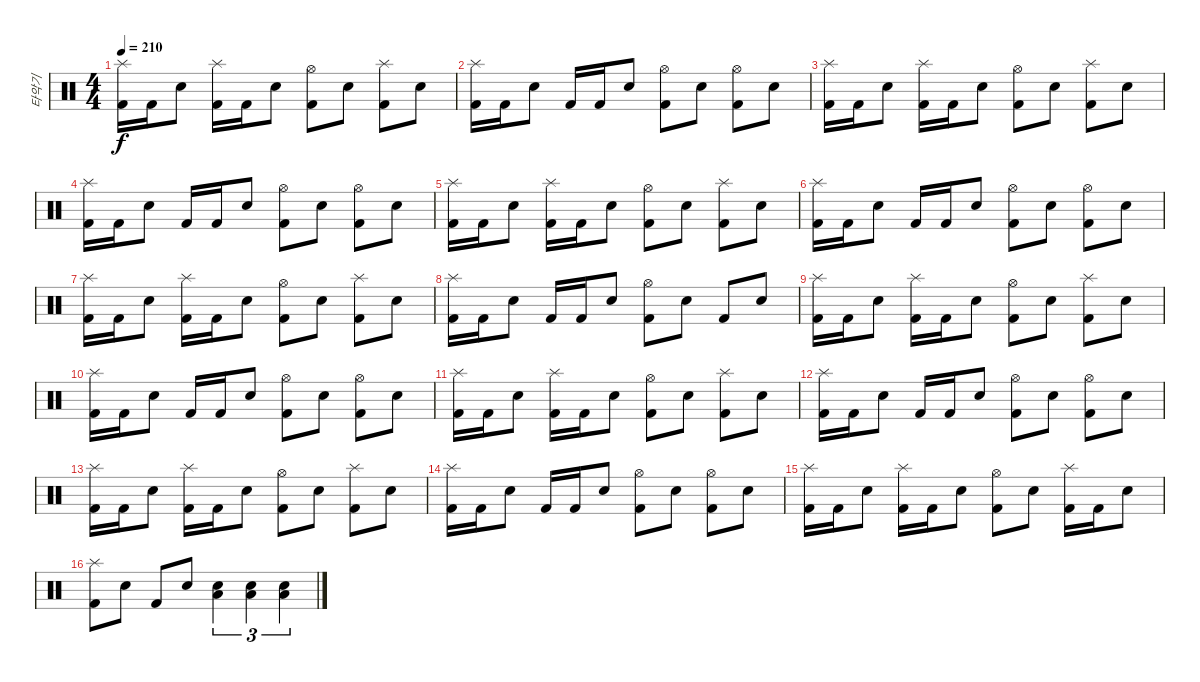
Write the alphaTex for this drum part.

\track ("타악기" "타악기") {instrument percussion}
\staff {score}
\articulation defaults
\ts (4 4)
\tempo 210
\clef neutral
\ks c
("Splash (hit)" "Kick (hit) 2").16{dy f} "Kick (hit) 2".16 "Snare (hit) 2".8 ("Splash (hit)" "Kick (hit) 2").16 "Kick (hit) 2".16 "Snare (hit) 2".8 ("Hi-Hat (open)" "Kick (hit) 2").8 "Snare (hit) 2".8 ("Splash (hit)" "Kick (hit) 2").8 "Snare (hit) 2".8 |
("Splash (hit)" "Kick (hit) 2").16 "Kick (hit) 2".16 "Snare (hit) 2".8 "Kick (hit) 2".16 "Kick (hit) 2".16 "Snare (hit) 2".8 ("Hi-Hat (open)" "Kick (hit) 2").8 "Snare (hit) 2".8 ("Hi-Hat (open)" "Kick (hit) 2").8 "Snare (hit) 2".8 |
("Splash (hit)" "Kick (hit) 2").16 "Kick (hit) 2".16 "Snare (hit) 2".8 ("Splash (hit)" "Kick (hit) 2").16 "Kick (hit) 2".16 "Snare (hit) 2".8 ("Hi-Hat (open)" "Kick (hit) 2").8 "Snare (hit) 2".8 ("Splash (hit)" "Kick (hit) 2").8 "Snare (hit) 2".8 |
("Splash (hit)" "Kick (hit) 2").16 "Kick (hit) 2".16 "Snare (hit) 2".8 "Kick (hit) 2".16 "Kick (hit) 2".16 "Snare (hit) 2".8 ("Hi-Hat (open)" "Kick (hit) 2").8 "Snare (hit) 2".8 ("Hi-Hat (open)" "Kick (hit) 2").8 "Snare (hit) 2".8 |
("Splash (hit)" "Kick (hit) 2").16 "Kick (hit) 2".16 "Snare (hit) 2".8 ("Splash (hit)" "Kick (hit) 2").16 "Kick (hit) 2".16 "Snare (hit) 2".8 ("Hi-Hat (open)" "Kick (hit) 2").8 "Snare (hit) 2".8 ("Splash (hit)" "Kick (hit) 2").8 "Snare (hit) 2".8 |
("Splash (hit)" "Kick (hit) 2").16 "Kick (hit) 2".16 "Snare (hit) 2".8 "Kick (hit) 2".16 "Kick (hit) 2".16 "Snare (hit) 2".8 ("Hi-Hat (open)" "Kick (hit) 2").8 "Snare (hit) 2".8 ("Hi-Hat (open)" "Kick (hit) 2").8 "Snare (hit) 2".8 |
("Splash (hit)" "Kick (hit) 2").16 "Kick (hit) 2".16 "Snare (hit) 2".8 ("Splash (hit)" "Kick (hit) 2").16 "Kick (hit) 2".16 "Snare (hit) 2".8 ("Hi-Hat (open)" "Kick (hit) 2").8 "Snare (hit) 2".8 ("Splash (hit)" "Kick (hit) 2").8 "Snare (hit) 2".8 |
("Splash (hit)" "Kick (hit) 2").16 "Kick (hit) 2".16 "Snare (hit) 2".8 "Kick (hit) 2".16 "Kick (hit) 2".16 "Snare (hit) 2".8 ("Hi-Hat (open)" "Kick (hit) 2").8 "Snare (hit) 2".8 "Kick (hit) 2".8 "Snare (hit) 2".8 |
("Splash (hit)" "Kick (hit) 2").16 "Kick (hit) 2".16 "Snare (hit) 2".8 ("Splash (hit)" "Kick (hit) 2").16 "Kick (hit) 2".16 "Snare (hit) 2".8 ("Hi-Hat (open)" "Kick (hit) 2").8 "Snare (hit) 2".8 ("Splash (hit)" "Kick (hit) 2").8 "Snare (hit) 2".8 |
("Splash (hit)" "Kick (hit) 2").16 "Kick (hit) 2".16 "Snare (hit) 2".8 "Kick (hit) 2".16 "Kick (hit) 2".16 "Snare (hit) 2".8 ("Hi-Hat (open)" "Kick (hit) 2").8 "Snare (hit) 2".8 ("Hi-Hat (open)" "Kick (hit) 2").8 "Snare (hit) 2".8 |
("Splash (hit)" "Kick (hit) 2").16 "Kick (hit) 2".16 "Snare (hit) 2".8 ("Splash (hit)" "Kick (hit) 2").16 "Kick (hit) 2".16 "Snare (hit) 2".8 ("Hi-Hat (open)" "Kick (hit) 2").8 "Snare (hit) 2".8 ("Splash (hit)" "Kick (hit) 2").8 "Snare (hit) 2".8 |
("Splash (hit)" "Kick (hit) 2").16 "Kick (hit) 2".16 "Snare (hit) 2".8 "Kick (hit) 2".16 "Kick (hit) 2".16 "Snare (hit) 2".8 ("Hi-Hat (open)" "Kick (hit) 2").8 "Snare (hit) 2".8 ("Hi-Hat (open)" "Kick (hit) 2").8 "Snare (hit) 2".8 |
("Splash (hit)" "Kick (hit) 2").16 "Kick (hit) 2".16 "Snare (hit) 2".8 ("Splash (hit)" "Kick (hit) 2").16 "Kick (hit) 2".16 "Snare (hit) 2".8 ("Hi-Hat (open)" "Kick (hit) 2").8 "Snare (hit) 2".8 ("Splash (hit)" "Kick (hit) 2").8 "Snare (hit) 2".8 |
("Splash (hit)" "Kick (hit) 2").16 "Kick (hit) 2".16 "Snare (hit) 2".8 "Kick (hit) 2".16 "Kick (hit) 2".16 "Snare (hit) 2".8 ("Hi-Hat (open)" "Kick (hit) 2").8 "Snare (hit) 2".8 ("Hi-Hat (open)" "Kick (hit) 2").8 "Snare (hit) 2".8 |
("Splash (hit)" "Kick (hit) 2").16 "Kick (hit) 2".16 "Snare (hit) 2".8 ("Splash (hit)" "Kick (hit) 2").16 "Kick (hit) 2".16 "Snare (hit) 2".8 ("Hi-Hat (open)" "Kick (hit) 2").8 "Snare (hit) 2".8 ("Splash (hit)" "Kick (hit) 2").16 "Kick (hit) 2".16 "Snare (hit) 2".8 |
("Splash (hit)" "Kick (hit) 2").8 "Snare (hit) 2".8 "Kick (hit) 2".8 "Snare (hit) 2".8 ("Low Tom (hit)" "Snare (hit) 2").4{tu (3 2)} ("Low Tom (hit)" "Snare (hit) 2").4{tu (3 2)} ("Low Tom (hit)" "Snare (hit) 2").4{tu (3 2)}
